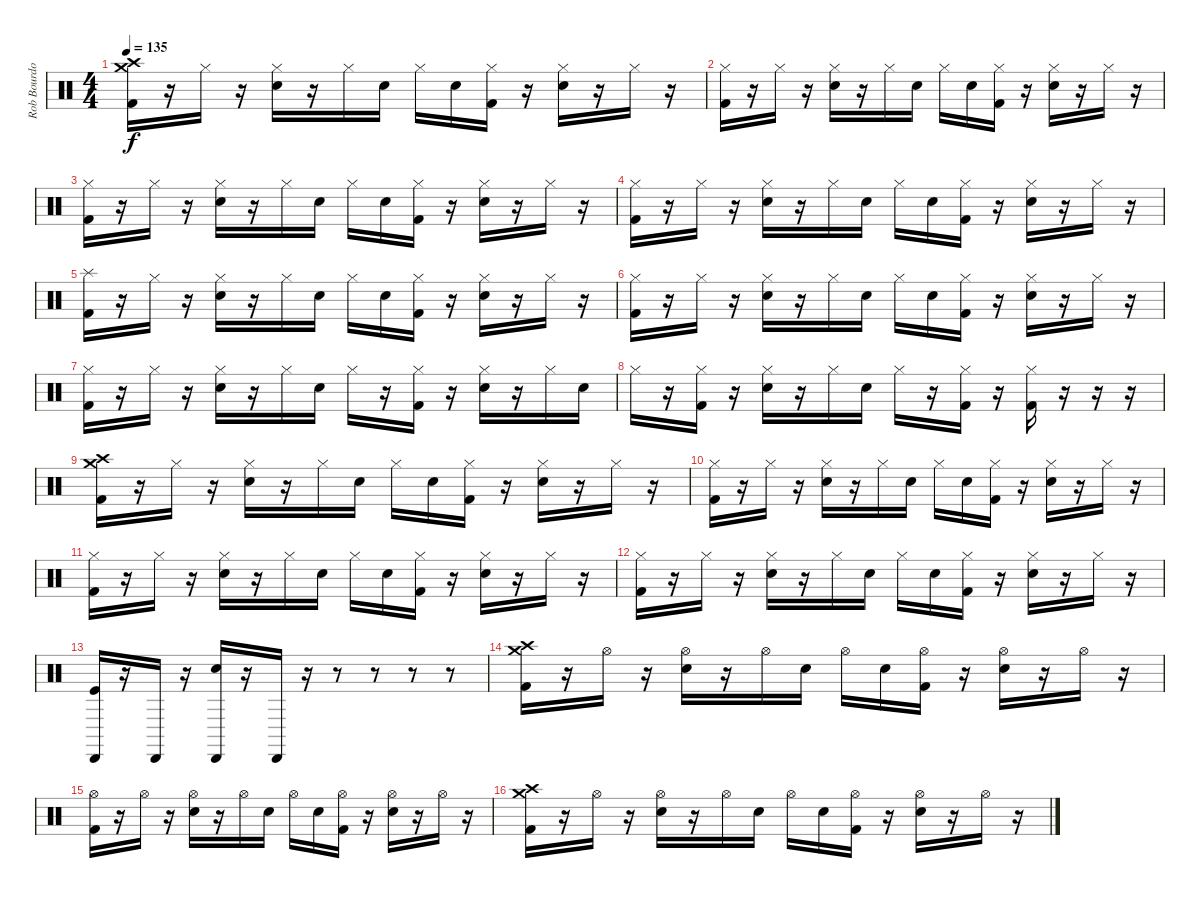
\track ("Rob Bourdon (Drums)" "Rob Bourdo") {instrument percussion}
\staff {score}
\articulation defaults
\ts (4 4)
\tempo 135
\clef neutral
\ks c
("Crash high (hit)" "Crash medium (hit)" "Kick (hit) 2").16{dy f} r.16 "Hi-Hat (closed)".16 r.16 ("Hi-Hat (closed)" "Electric Snare (hit)").16 r.16 "Hi-Hat (closed)".16 "Electric Snare (hit)".16 "Hi-Hat (closed)".16 "Electric Snare (hit)".16 ("Hi-Hat (closed)" "Kick (hit) 2").16 r.16 ("Hi-Hat (closed)" "Electric Snare (hit)").16 r.16 "Hi-Hat (closed)".16 r.16 |
("Hi-Hat (closed)" "Kick (hit) 2").16 r.16 "Hi-Hat (closed)".16 r.16 ("Hi-Hat (closed)" "Electric Snare (hit)").16 r.16 "Hi-Hat (closed)".16 "Electric Snare (hit)".16 "Hi-Hat (closed)".16 "Electric Snare (hit)".16 ("Hi-Hat (closed)" "Kick (hit) 2").16 r.16 ("Hi-Hat (closed)" "Electric Snare (hit)").16 r.16 "Hi-Hat (closed)".16 r.16 |
("Hi-Hat (closed)" "Kick (hit) 2").16 r.16 "Hi-Hat (closed)".16 r.16 ("Hi-Hat (closed)" "Electric Snare (hit)").16 r.16 "Hi-Hat (closed)".16 "Electric Snare (hit)".16 "Hi-Hat (closed)".16 "Electric Snare (hit)".16 ("Hi-Hat (closed)" "Kick (hit) 2").16 r.16 ("Hi-Hat (closed)" "Electric Snare (hit)").16 r.16 "Hi-Hat (closed)".16 r.16 |
("Hi-Hat (closed)" "Kick (hit) 2").16 r.16 "Hi-Hat (closed)".16 r.16 ("Hi-Hat (closed)" "Electric Snare (hit)").16 r.16 "Hi-Hat (closed)".16 "Electric Snare (hit)".16 "Hi-Hat (closed)".16 "Electric Snare (hit)".16 ("Hi-Hat (closed)" "Kick (hit) 2").16 r.16 ("Hi-Hat (closed)" "Electric Snare (hit)").16 r.16 "Hi-Hat (closed)".16 r.16 |
("Splash (hit)" "Kick (hit) 2").16 r.16 "Hi-Hat (closed)".16 r.16 ("Hi-Hat (closed)" "Electric Snare (hit)").16 r.16 "Hi-Hat (closed)".16 "Electric Snare (hit)".16 "Hi-Hat (closed)".16 "Electric Snare (hit)".16 ("Hi-Hat (closed)" "Kick (hit) 2").16 r.16 ("Hi-Hat (closed)" "Electric Snare (hit)").16 r.16 "Hi-Hat (closed)".16 r.16 |
("Hi-Hat (closed)" "Kick (hit) 2").16 r.16 "Hi-Hat (closed)".16 r.16 ("Hi-Hat (closed)" "Electric Snare (hit)").16 r.16 "Hi-Hat (closed)".16 "Electric Snare (hit)".16 "Hi-Hat (closed)".16 "Electric Snare (hit)".16 ("Hi-Hat (closed)" "Kick (hit) 2").16 r.16 ("Hi-Hat (closed)" "Electric Snare (hit)").16 r.16 "Hi-Hat (closed)".16 r.16 |
("Hi-Hat (closed)" "Kick (hit) 2").16 r.16 "Hi-Hat (closed)".16 r.16 ("Hi-Hat (closed)" "Electric Snare (hit)").16 r.16 "Hi-Hat (closed)".16 "Electric Snare (hit)".16 "Hi-Hat (closed)".16 r.16 ("Hi-Hat (closed)" "Kick (hit) 2").16 r.16 ("Hi-Hat (closed)" "Electric Snare (hit)").16 r.16 "Hi-Hat (closed)".16 "Electric Snare (hit)".16 |
"Hi-Hat (closed)".16 r.16 ("Hi-Hat (closed)" "Kick (hit) 2").16 r.16 ("Hi-Hat (closed)" "Electric Snare (hit)").16 r.16 "Hi-Hat (closed)".16 "Electric Snare (hit)".16 "Hi-Hat (closed)".16 r.16 ("Hi-Hat (closed)" "Kick (hit) 2").16 r.16 ("Hi-Hat (closed)" "Kick (hit) 2").16 r.16 r.16 r.16 |
("Crash high (hit)" "Crash medium (hit)" "Kick (hit) 2").16 r.16 "Hi-Hat (closed)".16 r.16 ("Hi-Hat (closed)" "Electric Snare (hit)").16 r.16 "Hi-Hat (closed)".16 "Electric Snare (hit)".16 "Hi-Hat (closed)".16 "Electric Snare (hit)".16 ("Hi-Hat (closed)" "Kick (hit) 2").16 r.16 ("Hi-Hat (closed)" "Electric Snare (hit)").16 r.16 "Hi-Hat (closed)".16 r.16 |
("Hi-Hat (closed)" "Kick (hit) 2").16 r.16 "Hi-Hat (closed)".16 r.16 ("Hi-Hat (closed)" "Electric Snare (hit)").16 r.16 "Hi-Hat (closed)".16 "Electric Snare (hit)".16 "Hi-Hat (closed)".16 "Electric Snare (hit)".16 ("Hi-Hat (closed)" "Kick (hit) 2").16 r.16 ("Hi-Hat (closed)" "Electric Snare (hit)").16 r.16 "Hi-Hat (closed)".16 r.16 |
("Hi-Hat (closed)" "Kick (hit) 2").16 r.16 "Hi-Hat (closed)".16 r.16 ("Hi-Hat (closed)" "Electric Snare (hit)").16 r.16 "Hi-Hat (closed)".16 "Electric Snare (hit)".16 "Hi-Hat (closed)".16 "Electric Snare (hit)".16 ("Hi-Hat (closed)" "Kick (hit) 2").16 r.16 ("Hi-Hat (closed)" "Electric Snare (hit)").16 r.16 "Hi-Hat (closed)".16 r.16 |
("Hi-Hat (closed)" "Kick (hit) 2").16 r.16 "Hi-Hat (closed)".16 r.16 ("Hi-Hat (closed)" "Electric Snare (hit)").16 r.16 "Hi-Hat (closed)".16 "Electric Snare (hit)".16 "Hi-Hat (closed)".16 "Electric Snare (hit)".16 ("Hi-Hat (closed)" "Kick (hit) 2").16 r.16 ("Hi-Hat (closed)" "Electric Snare (hit)").16 r.16 "Hi-Hat (closed)".16 r.16 |
("Cabasa (hit)" "Kick (hit)").16 r.16 "Cabasa (hit)".16 r.16 ("Cabasa (hit)" "Hand Clap (hit)").16 r.16 "Cabasa (hit)".16 r.16 r.8 r.8 r.8 r.8 |
("Crash high (hit)" "Crash medium (hit)" "Kick (hit) 2").16 r.16 "Hi-Hat (open)".16 r.16 ("Hi-Hat (open)" "Electric Snare (hit)").16 r.16 "Hi-Hat (open)".16 "Electric Snare (hit)".16 "Hi-Hat (open)".16 "Electric Snare (hit)".16 ("Hi-Hat (open)" "Kick (hit) 2").16 r.16 ("Hi-Hat (open)" "Electric Snare (hit)").16 r.16 "Hi-Hat (open)".16 r.16 |
("Hi-Hat (open)" "Kick (hit) 2").16 r.16 "Hi-Hat (open)".16 r.16 ("Hi-Hat (open)" "Electric Snare (hit)").16 r.16 "Hi-Hat (open)".16 "Electric Snare (hit)".16 "Hi-Hat (open)".16 "Electric Snare (hit)".16 ("Hi-Hat (open)" "Kick (hit) 2").16 r.16 ("Hi-Hat (open)" "Electric Snare (hit)").16 r.16 "Hi-Hat (open)".16 r.16 |
("Crash high (hit)" "Crash medium (hit)" "Kick (hit) 2").16 r.16 "Hi-Hat (open)".16 r.16 ("Hi-Hat (open)" "Electric Snare (hit)").16 r.16 "Hi-Hat (open)".16 "Electric Snare (hit)".16 "Hi-Hat (open)".16 "Electric Snare (hit)".16 ("Hi-Hat (open)" "Kick (hit) 2").16 r.16 ("Hi-Hat (open)" "Electric Snare (hit)").16 r.16 "Hi-Hat (open)".16 r.16
